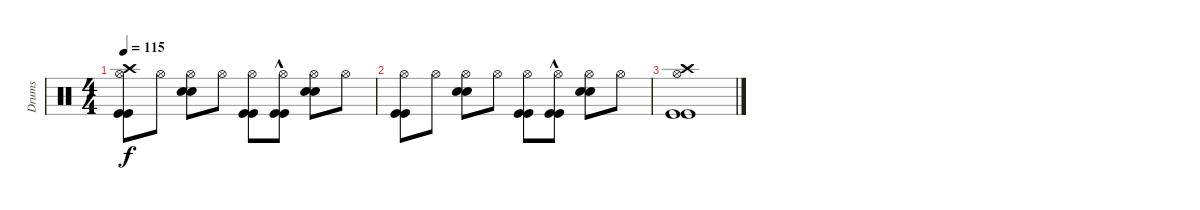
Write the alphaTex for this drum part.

\track ("Drums" "Drums") {instrument percussion}
\staff {score}
\articulation defaults
\ts (4 4)
\tempo 115
\clef neutral
\ks c
("Kick (hit)" "Kick (hit)" "Hi-Hat (open)" "Crash high (hit)").8{dy f} "Hi-Hat (open)".8 ("Snare (hit) 2" "Snare (hit) 2" "Hi-Hat (open)").8 "Hi-Hat (open)".8 ("Kick (hit)" "Kick (hit)" "Hi-Hat (open)").8 ("Kick (hit)"{hac} "Kick (hit)"{hac} "Hi-Hat (open)").8 ("Snare (hit) 2" "Snare (hit) 2" "Hi-Hat (open)").8 "Hi-Hat (open)".8 |
("Kick (hit)" "Kick (hit)" "Hi-Hat (open)").8 "Hi-Hat (open)".8 ("Snare (hit) 2" "Snare (hit) 2" "Hi-Hat (open)").8 "Hi-Hat (open)".8 ("Kick (hit)" "Kick (hit)" "Hi-Hat (open)").8 ("Kick (hit)"{hac} "Kick (hit)"{hac} "Hi-Hat (open)").8 ("Snare (hit) 2" "Snare (hit) 2" "Hi-Hat (open)").8 "Hi-Hat (open)".8 |
("Kick (hit)" "Kick (hit)" "Hi-Hat (open)" "Crash high (hit)").1
